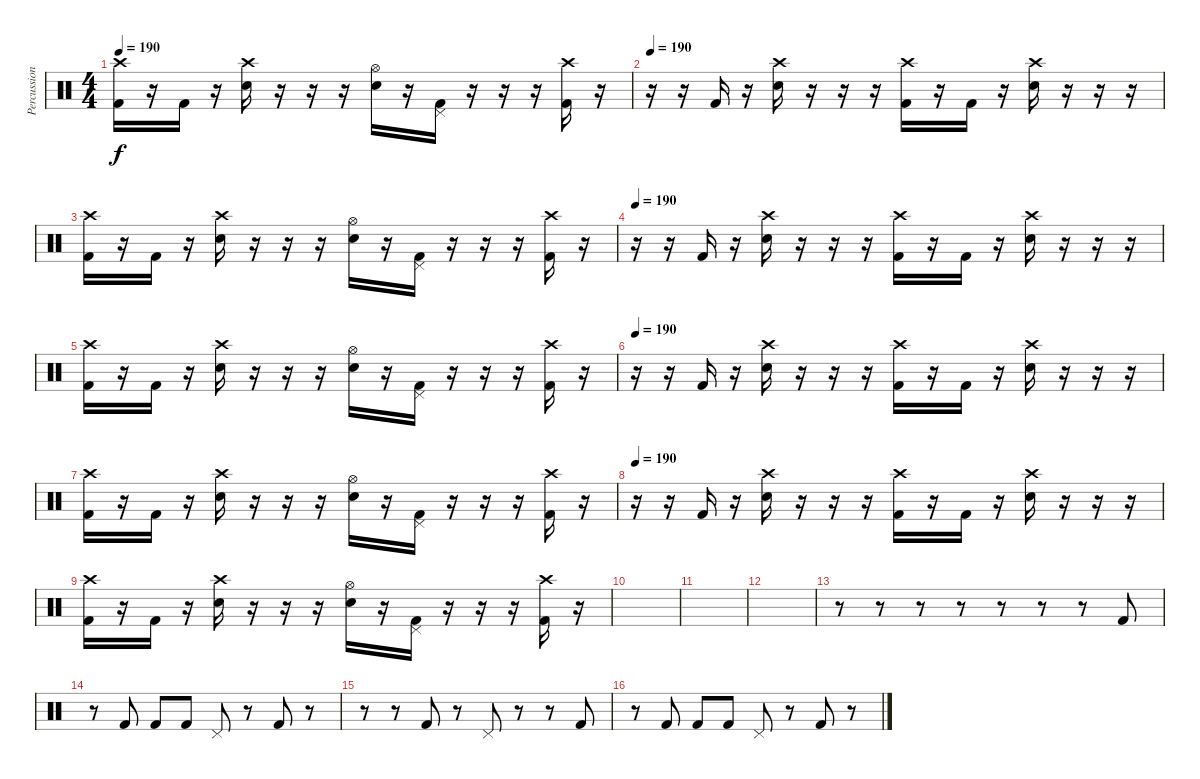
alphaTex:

\track ("Percussion" "Percussion") {instrument percussion}
\staff {score}
\articulation defaults
\ts (4 4)
\tempo 190
\clef neutral
\ks c
("Crash high (hit)" "Kick (hit) 2").16{dy f} r.16 "Kick (hit) 2".16 r.16 ("Crash high (hit)" "Electric Snare (hit)").16 r.16 r.16 r.16 ("Hi-Hat (open)" "Electric Snare (hit)").16 r.16 ("Pedal Hi-Hat (hit)" "Kick (hit) 2").16 r.16 r.16 r.16 ("Crash high (hit)" "Kick (hit) 2").16 r.16 |
\tempo 190
r.16 r.16 "Kick (hit) 2".16 r.16 ("Crash high (hit)" "Electric Snare (hit)").16 r.16 r.16 r.16 ("Crash high (hit)" "Kick (hit) 2").16 r.16 "Kick (hit) 2".16 r.16 ("Crash high (hit)" "Electric Snare (hit)").16 r.16 r.16 r.16 |
("Crash high (hit)" "Kick (hit) 2").16 r.16 "Kick (hit) 2".16 r.16 ("Crash high (hit)" "Electric Snare (hit)").16 r.16 r.16 r.16 ("Hi-Hat (open)" "Electric Snare (hit)").16 r.16 ("Pedal Hi-Hat (hit)" "Kick (hit) 2").16 r.16 r.16 r.16 ("Crash high (hit)" "Kick (hit) 2").16 r.16 |
\tempo 190
r.16 r.16 "Kick (hit) 2".16 r.16 ("Crash high (hit)" "Electric Snare (hit)").16 r.16 r.16 r.16 ("Crash high (hit)" "Kick (hit) 2").16 r.16 "Kick (hit) 2".16 r.16 ("Crash high (hit)" "Electric Snare (hit)").16 r.16 r.16 r.16 |
("Crash high (hit)" "Kick (hit) 2").16 r.16 "Kick (hit) 2".16 r.16 ("Crash high (hit)" "Electric Snare (hit)").16 r.16 r.16 r.16 ("Hi-Hat (open)" "Electric Snare (hit)").16 r.16 ("Pedal Hi-Hat (hit)" "Kick (hit) 2").16 r.16 r.16 r.16 ("Crash high (hit)" "Kick (hit) 2").16 r.16 |
\tempo 190
r.16 r.16 "Kick (hit) 2".16 r.16 ("Crash high (hit)" "Electric Snare (hit)").16 r.16 r.16 r.16 ("Crash high (hit)" "Kick (hit) 2").16 r.16 "Kick (hit) 2".16 r.16 ("Crash high (hit)" "Electric Snare (hit)").16 r.16 r.16 r.16 |
("Crash high (hit)" "Kick (hit) 2").16 r.16 "Kick (hit) 2".16 r.16 ("Crash high (hit)" "Electric Snare (hit)").16 r.16 r.16 r.16 ("Hi-Hat (open)" "Electric Snare (hit)").16 r.16 ("Pedal Hi-Hat (hit)" "Kick (hit) 2").16 r.16 r.16 r.16 ("Crash high (hit)" "Kick (hit) 2").16 r.16 |
\tempo 190
r.16 r.16 "Kick (hit) 2".16 r.16 ("Crash high (hit)" "Electric Snare (hit)").16 r.16 r.16 r.16 ("Crash high (hit)" "Kick (hit) 2").16 r.16 "Kick (hit) 2".16 r.16 ("Crash high (hit)" "Electric Snare (hit)").16 r.16 r.16 r.16 |
("Crash high (hit)" "Kick (hit) 2").16 r.16 "Kick (hit) 2".16 r.16 ("Crash high (hit)" "Electric Snare (hit)").16 r.16 r.16 r.16 ("Hi-Hat (open)" "Electric Snare (hit)").16 r.16 ("Pedal Hi-Hat (hit)" "Kick (hit) 2").16 r.16 r.16 r.16 ("Crash high (hit)" "Kick (hit) 2").16 r.16 |
|
|
|
r.8 r.8 r.8 r.8 r.8 r.8 r.8 "Kick (hit) 2".8 |
r.8 "Kick (hit) 2".8 "Kick (hit) 2".8 "Kick (hit) 2".8 "Pedal Hi-Hat (hit)".8 r.8 "Kick (hit) 2".8 r.8 |
r.8 r.8 "Kick (hit) 2".8 r.8 "Pedal Hi-Hat (hit)".8 r.8 r.8 "Kick (hit) 2".8 |
r.8 "Kick (hit) 2".8 "Kick (hit) 2".8 "Kick (hit) 2".8 "Pedal Hi-Hat (hit)".8 r.8 "Kick (hit) 2".8 r.8
